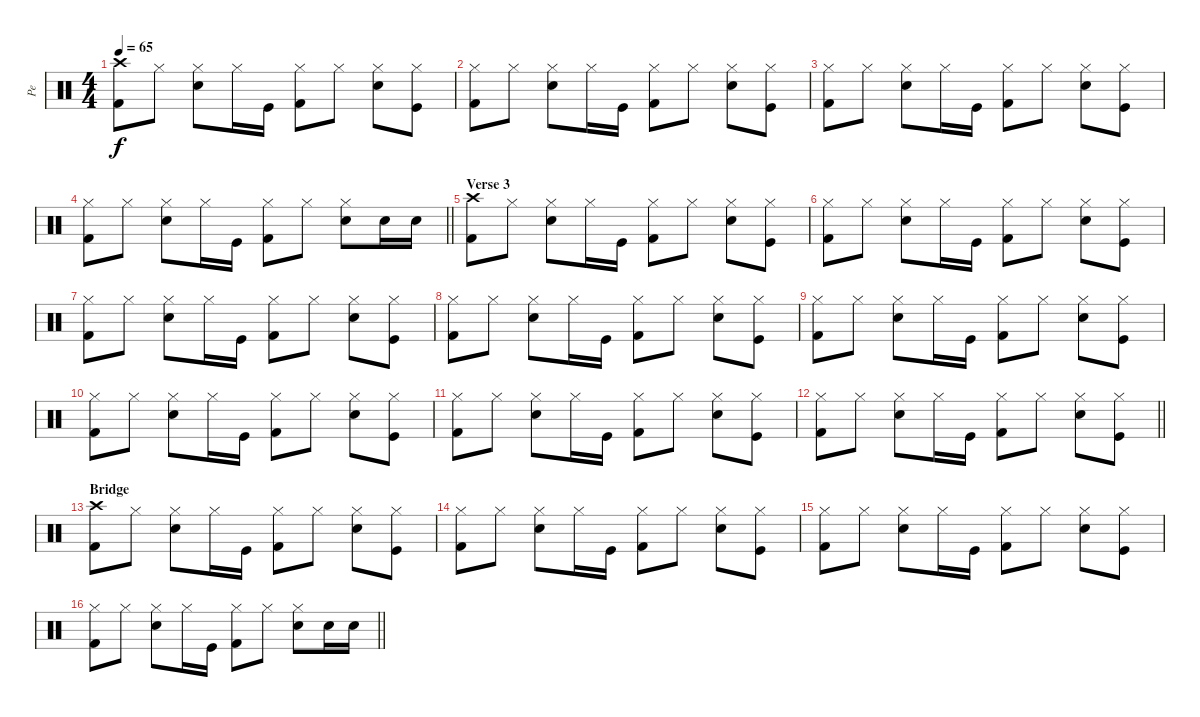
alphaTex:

\track ("Pe" "Pe") {instrument percussion}
\staff {score}
\articulation defaults
\ts (4 4)
\tempo 65
\clef neutral
\ks c
("Kick (hit) 2" "Crash high (hit)").8{dy f} "Hi-Hat (closed)".8 ("Electric Snare (hit)" "Hi-Hat (closed)").8 "Hi-Hat (closed)".16 "Kick (hit)".16 ("Kick (hit) 2" "Hi-Hat (closed)").8 "Hi-Hat (closed)".8 ("Electric Snare (hit)" "Hi-Hat (closed)").8 ("Kick (hit)" "Hi-Hat (closed)").8 |
("Kick (hit) 2" "Hi-Hat (closed)").8 "Hi-Hat (closed)".8 ("Electric Snare (hit)" "Hi-Hat (closed)").8 "Hi-Hat (closed)".16 "Kick (hit)".16 ("Kick (hit) 2" "Hi-Hat (closed)").8 "Hi-Hat (closed)".8 ("Electric Snare (hit)" "Hi-Hat (closed)").8 ("Kick (hit)" "Hi-Hat (closed)").8 |
("Kick (hit) 2" "Hi-Hat (closed)").8 "Hi-Hat (closed)".8 ("Electric Snare (hit)" "Hi-Hat (closed)").8 "Hi-Hat (closed)".16 "Kick (hit)".16 ("Kick (hit) 2" "Hi-Hat (closed)").8 "Hi-Hat (closed)".8 ("Electric Snare (hit)" "Hi-Hat (closed)").8 ("Kick (hit)" "Hi-Hat (closed)").8 |
\barLineRight lightlight
("Kick (hit) 2" "Hi-Hat (closed)").8 "Hi-Hat (closed)".8 ("Electric Snare (hit)" "Hi-Hat (closed)").8 "Hi-Hat (closed)".16 "Kick (hit)".16 ("Kick (hit) 2" "Hi-Hat (closed)").8 "Hi-Hat (closed)".8 ("Electric Snare (hit)" "Hi-Hat (closed)").8 "Electric Snare (hit)".16 "Electric Snare (hit)".16 |
\section ("" "Verse 3")
("Kick (hit) 2" "Crash high (hit)").8 "Hi-Hat (closed)".8 ("Electric Snare (hit)" "Hi-Hat (closed)").8 "Hi-Hat (closed)".16 "Kick (hit)".16 ("Kick (hit) 2" "Hi-Hat (closed)").8 "Hi-Hat (closed)".8 ("Electric Snare (hit)" "Hi-Hat (closed)").8 ("Kick (hit)" "Hi-Hat (closed)").8 |
("Kick (hit) 2" "Hi-Hat (closed)").8 "Hi-Hat (closed)".8 ("Electric Snare (hit)" "Hi-Hat (closed)").8 "Hi-Hat (closed)".16 "Kick (hit)".16 ("Kick (hit) 2" "Hi-Hat (closed)").8 "Hi-Hat (closed)".8 ("Electric Snare (hit)" "Hi-Hat (closed)").8 ("Kick (hit)" "Hi-Hat (closed)").8 |
("Kick (hit) 2" "Hi-Hat (closed)").8 "Hi-Hat (closed)".8 ("Electric Snare (hit)" "Hi-Hat (closed)").8 "Hi-Hat (closed)".16 "Kick (hit)".16 ("Kick (hit) 2" "Hi-Hat (closed)").8 "Hi-Hat (closed)".8 ("Electric Snare (hit)" "Hi-Hat (closed)").8 ("Kick (hit)" "Hi-Hat (closed)").8 |
("Kick (hit) 2" "Hi-Hat (closed)").8 "Hi-Hat (closed)".8 ("Electric Snare (hit)" "Hi-Hat (closed)").8 "Hi-Hat (closed)".16 "Kick (hit)".16 ("Kick (hit) 2" "Hi-Hat (closed)").8 "Hi-Hat (closed)".8 ("Electric Snare (hit)" "Hi-Hat (closed)").8 ("Kick (hit)" "Hi-Hat (closed)").8 |
("Kick (hit) 2" "Hi-Hat (closed)").8 "Hi-Hat (closed)".8 ("Electric Snare (hit)" "Hi-Hat (closed)").8 "Hi-Hat (closed)".16 "Kick (hit)".16 ("Kick (hit) 2" "Hi-Hat (closed)").8 "Hi-Hat (closed)".8 ("Electric Snare (hit)" "Hi-Hat (closed)").8 ("Kick (hit)" "Hi-Hat (closed)").8 |
("Kick (hit) 2" "Hi-Hat (closed)").8 "Hi-Hat (closed)".8 ("Electric Snare (hit)" "Hi-Hat (closed)").8 "Hi-Hat (closed)".16 "Kick (hit)".16 ("Kick (hit) 2" "Hi-Hat (closed)").8 "Hi-Hat (closed)".8 ("Electric Snare (hit)" "Hi-Hat (closed)").8 ("Kick (hit)" "Hi-Hat (closed)").8 |
("Kick (hit) 2" "Hi-Hat (closed)").8 "Hi-Hat (closed)".8 ("Electric Snare (hit)" "Hi-Hat (closed)").8 "Hi-Hat (closed)".16 "Kick (hit)".16 ("Kick (hit) 2" "Hi-Hat (closed)").8 "Hi-Hat (closed)".8 ("Electric Snare (hit)" "Hi-Hat (closed)").8 ("Kick (hit)" "Hi-Hat (closed)").8 |
\barLineRight lightlight
("Kick (hit) 2" "Hi-Hat (closed)").8 "Hi-Hat (closed)".8 ("Electric Snare (hit)" "Hi-Hat (closed)").8 "Hi-Hat (closed)".16 "Kick (hit)".16 ("Kick (hit) 2" "Hi-Hat (closed)").8 "Hi-Hat (closed)".8 ("Electric Snare (hit)" "Hi-Hat (closed)").8 ("Kick (hit)" "Hi-Hat (closed)").8 |
\section ("" "Bridge")
("Kick (hit) 2" "Crash high (hit)").8 "Hi-Hat (closed)".8 ("Electric Snare (hit)" "Hi-Hat (closed)").8 "Hi-Hat (closed)".16 "Kick (hit)".16 ("Kick (hit) 2" "Hi-Hat (closed)").8 "Hi-Hat (closed)".8 ("Electric Snare (hit)" "Hi-Hat (closed)").8 ("Kick (hit)" "Hi-Hat (closed)").8 |
("Kick (hit) 2" "Hi-Hat (closed)").8 "Hi-Hat (closed)".8 ("Electric Snare (hit)" "Hi-Hat (closed)").8 "Hi-Hat (closed)".16 "Kick (hit)".16 ("Kick (hit) 2" "Hi-Hat (closed)").8 "Hi-Hat (closed)".8 ("Electric Snare (hit)" "Hi-Hat (closed)").8 ("Kick (hit)" "Hi-Hat (closed)").8 |
("Kick (hit) 2" "Hi-Hat (closed)").8 "Hi-Hat (closed)".8 ("Electric Snare (hit)" "Hi-Hat (closed)").8 "Hi-Hat (closed)".16 "Kick (hit)".16 ("Kick (hit) 2" "Hi-Hat (closed)").8 "Hi-Hat (closed)".8 ("Electric Snare (hit)" "Hi-Hat (closed)").8 ("Kick (hit)" "Hi-Hat (closed)").8 |
\barLineRight lightlight
("Kick (hit) 2" "Hi-Hat (closed)").8 "Hi-Hat (closed)".8 ("Electric Snare (hit)" "Hi-Hat (closed)").8 "Hi-Hat (closed)".16 "Kick (hit)".16 ("Kick (hit) 2" "Hi-Hat (closed)").8 "Hi-Hat (closed)".8 ("Electric Snare (hit)" "Hi-Hat (closed)").8 "Electric Snare (hit)".16 "Electric Snare (hit)".16
